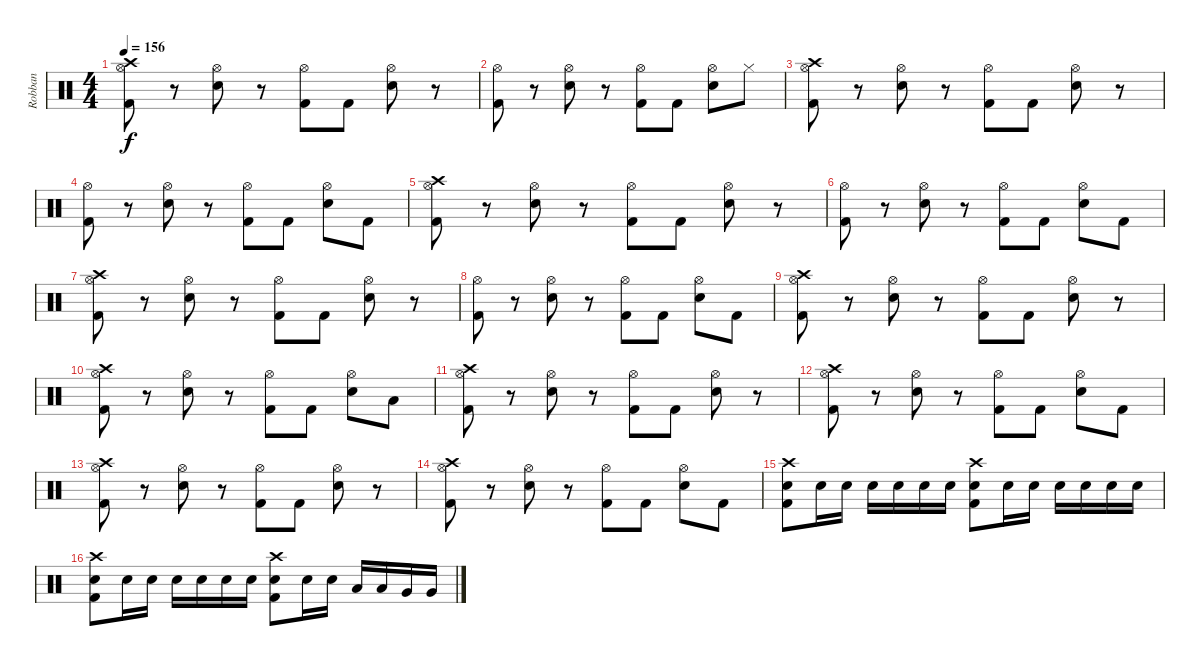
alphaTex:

\track ("Robban" "Robban") {instrument percussion}
\staff {score}
\articulation defaults
\ts (4 4)
\tempo 156
\clef neutral
\ks c
("Crash high (hit)" "Hi-Hat (open)" "Kick (hit) 2").8{dy f} r.8 ("Hi-Hat (open)" "Electric Snare (hit)").8 r.8 ("Hi-Hat (open)" "Kick (hit) 2").8 "Kick (hit) 2".8 ("Hi-Hat (open)" "Electric Snare (hit)").8 r.8 |
("Hi-Hat (open)" "Kick (hit) 2").8 r.8 ("Hi-Hat (open)" "Electric Snare (hit)").8 r.8 ("Hi-Hat (open)" "Kick (hit) 2").8 "Kick (hit) 2".8 ("Hi-Hat (open)" "Electric Snare (hit)").8 "Hi-Hat (closed)".8 |
("Crash high (hit)" "Hi-Hat (open)" "Kick (hit) 2").8 r.8 ("Hi-Hat (open)" "Electric Snare (hit)").8 r.8 ("Hi-Hat (open)" "Kick (hit) 2").8 "Kick (hit) 2".8 ("Hi-Hat (open)" "Electric Snare (hit)").8 r.8 |
("Hi-Hat (open)" "Kick (hit) 2").8 r.8 ("Hi-Hat (open)" "Electric Snare (hit)").8 r.8 ("Hi-Hat (open)" "Kick (hit) 2").8 "Kick (hit) 2".8 ("Hi-Hat (open)" "Electric Snare (hit)").8 "Kick (hit) 2".8 |
("Crash high (hit)" "Hi-Hat (open)" "Kick (hit) 2").8 r.8 ("Hi-Hat (open)" "Electric Snare (hit)").8 r.8 ("Hi-Hat (open)" "Kick (hit) 2").8 "Kick (hit) 2".8 ("Hi-Hat (open)" "Electric Snare (hit)").8 r.8 |
("Hi-Hat (open)" "Kick (hit) 2").8 r.8 ("Hi-Hat (open)" "Electric Snare (hit)").8 r.8 ("Hi-Hat (open)" "Kick (hit) 2").8 "Kick (hit) 2".8 ("Hi-Hat (open)" "Electric Snare (hit)").8 "Kick (hit) 2".8 |
("Crash high (hit)" "Hi-Hat (open)" "Kick (hit) 2").8 r.8 ("Hi-Hat (open)" "Electric Snare (hit)").8 r.8 ("Hi-Hat (open)" "Kick (hit) 2").8 "Kick (hit) 2".8 ("Hi-Hat (open)" "Electric Snare (hit)").8 r.8 |
("Hi-Hat (open)" "Kick (hit) 2").8 r.8 ("Hi-Hat (open)" "Electric Snare (hit)").8 r.8 ("Hi-Hat (open)" "Kick (hit) 2").8 "Kick (hit) 2".8 ("Hi-Hat (open)" "Electric Snare (hit)").8 "Kick (hit) 2".8 |
("Crash high (hit)" "Hi-Hat (open)" "Kick (hit) 2").8 r.8 ("Hi-Hat (open)" "Electric Snare (hit)").8 r.8 ("Hi-Hat (open)" "Kick (hit) 2").8 "Kick (hit) 2".8 ("Hi-Hat (open)" "Electric Snare (hit)").8 r.8 |
("Crash high (hit)" "Hi-Hat (open)" "Kick (hit) 2").8 r.8 ("Hi-Hat (open)" "Electric Snare (hit)").8 r.8 ("Hi-Hat (open)" "Kick (hit) 2").8 "Kick (hit) 2".8 ("Hi-Hat (open)" "Electric Snare (hit)").8 "Low Tom (hit)".8 |
("Crash high (hit)" "Hi-Hat (open)" "Kick (hit) 2").8 r.8 ("Hi-Hat (open)" "Electric Snare (hit)").8 r.8 ("Hi-Hat (open)" "Kick (hit) 2").8 "Kick (hit) 2".8 ("Hi-Hat (open)" "Electric Snare (hit)").8 r.8 |
("Crash high (hit)" "Hi-Hat (open)" "Kick (hit) 2").8 r.8 ("Hi-Hat (open)" "Electric Snare (hit)").8 r.8 ("Hi-Hat (open)" "Kick (hit) 2").8 "Kick (hit) 2".8 ("Hi-Hat (open)" "Electric Snare (hit)").8 "Kick (hit) 2".8 |
("Crash high (hit)" "Hi-Hat (open)" "Kick (hit) 2").8 r.8 ("Hi-Hat (open)" "Electric Snare (hit)").8 r.8 ("Hi-Hat (open)" "Kick (hit) 2").8 "Kick (hit) 2".8 ("Hi-Hat (open)" "Electric Snare (hit)").8 r.8 |
("Crash high (hit)" "Hi-Hat (open)" "Kick (hit) 2").8 r.8 ("Hi-Hat (open)" "Electric Snare (hit)").8 r.8 ("Hi-Hat (open)" "Kick (hit) 2").8 "Kick (hit) 2".8 ("Hi-Hat (open)" "Electric Snare (hit)").8 "Kick (hit) 2".8 |
("Crash high (hit)" "Electric Snare (hit)" "Kick (hit) 2").8 "Electric Snare (hit)".16 "Electric Snare (hit)".16 "Electric Snare (hit)".16 "Electric Snare (hit)".16 "Electric Snare (hit)".16 "Electric Snare (hit)".16 ("Crash high (hit)" "Electric Snare (hit)" "Kick (hit) 2").8 "Electric Snare (hit)".16 "Electric Snare (hit)".16 "Electric Snare (hit)".16 "Electric Snare (hit)".16 "Electric Snare (hit)".16 "Electric Snare (hit)".16 |
("Crash high (hit)" "Electric Snare (hit)" "Kick (hit) 2").8 "Electric Snare (hit)".16 "Electric Snare (hit)".16 "Electric Snare (hit)".16 "Electric Snare (hit)".16 "Electric Snare (hit)".16 "Electric Snare (hit)".16 ("Crash high (hit)" "Electric Snare (hit)" "Kick (hit) 2").8 "Electric Snare (hit)".16 "Electric Snare (hit)".16 "Low Tom (hit)".16 "Low Tom (hit)".16 "Very Low Tom (hit)".16 "Very Low Tom (hit)".16
